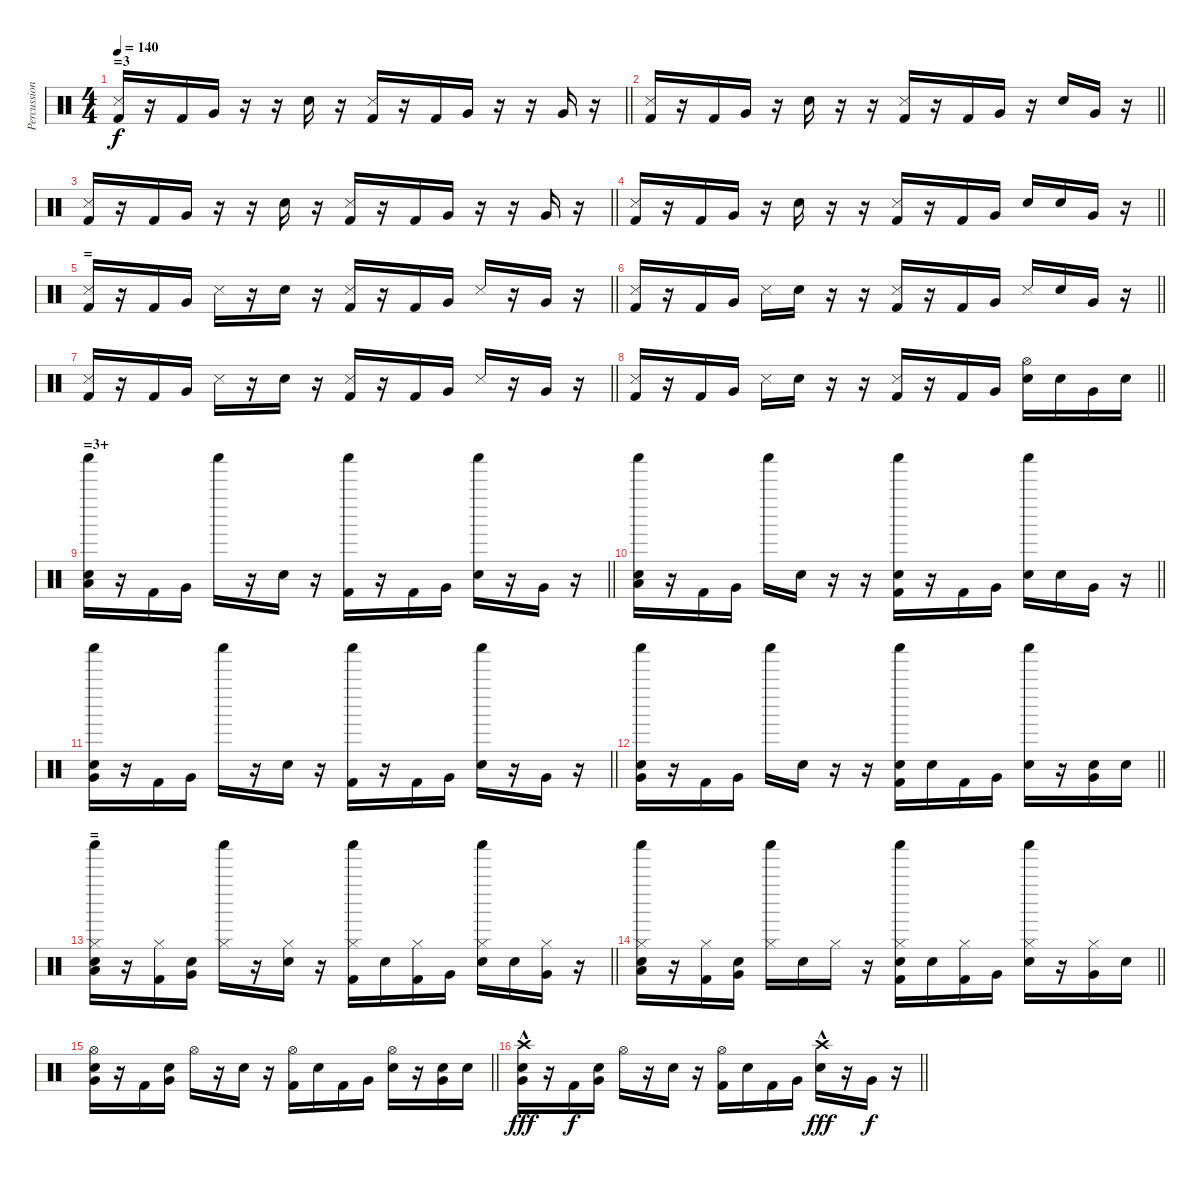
\track ("Percussion" "Percussion") {instrument percussion}
\staff {score}
\articulation defaults
\ts (4 4)
\section ("" "=3")
\tempo 140
\clef neutral
\barLineRight lightlight
\ks c
("Kick (hit) 2" "Snare (side stick) 3").16{dy f} r.16 "Kick (hit) 2".16 "Very Low Tom (hit)".16 r.16 r.16 "Electric Snare (hit)".16 r.16 ("Kick (hit) 2" "Snare (side stick) 3").16 r.16 "Kick (hit) 2".16 "Very Low Tom (hit)".16 r.16 r.16 "Very Low Tom (hit)".16 r.16 |
\barLineRight lightlight
("Kick (hit) 2" "Snare (side stick) 3").16 r.16 "Kick (hit) 2".16 "Very Low Tom (hit)".16 r.16 "Electric Snare (hit)".16 r.16 r.16 ("Kick (hit) 2" "Snare (side stick) 3").16 r.16 "Kick (hit) 2".16 "Very Low Tom (hit)".16 r.16 "Electric Snare (hit)".16 "Very Low Tom (hit)".16 r.16 |
\barLineRight lightlight
("Kick (hit) 2" "Snare (side stick) 3").16 r.16 "Kick (hit) 2".16 "Very Low Tom (hit)".16 r.16 r.16 "Electric Snare (hit)".16 r.16 ("Kick (hit) 2" "Snare (side stick) 3").16 r.16 "Kick (hit) 2".16 "Very Low Tom (hit)".16 r.16 r.16 "Very Low Tom (hit)".16 r.16 |
\barLineRight lightlight
("Kick (hit) 2" "Snare (side stick) 3").16 r.16 "Kick (hit) 2".16 "Very Low Tom (hit)".16 r.16 "Electric Snare (hit)".16 r.16 r.16 ("Kick (hit) 2" "Snare (side stick) 3").16 r.16 "Kick (hit) 2".16 "Very Low Tom (hit)".16 "Electric Snare (hit)".16 "Electric Snare (hit)".16 "Very Low Tom (hit)".16 r.16 |
\section ("" "=")
\barLineRight lightlight
("Kick (hit) 2" "Snare (side stick) 3").16 r.16 "Kick (hit) 2".16 "Very Low Tom (hit)".16 "Snare (side stick) 3".16 r.16 "Electric Snare (hit)".16 r.16 ("Kick (hit) 2" "Snare (side stick) 3").16 r.16 "Kick (hit) 2".16 "Very Low Tom (hit)".16 "Snare (side stick) 3".16 r.16 "Very Low Tom (hit)".16 r.16 |
\barLineRight lightlight
("Kick (hit) 2" "Snare (side stick) 3").16 r.16 "Kick (hit) 2".16 "Very Low Tom (hit)".16 "Snare (side stick) 3".16 "Electric Snare (hit)".16 r.16 r.16 ("Kick (hit) 2" "Snare (side stick) 3").16 r.16 "Kick (hit) 2".16 "Very Low Tom (hit)".16 "Snare (side stick) 3".16 "Electric Snare (hit)".16 "Very Low Tom (hit)".16 r.16 |
\barLineRight lightlight
("Kick (hit) 2" "Snare (side stick) 3").16 r.16 "Kick (hit) 2".16 "Very Low Tom (hit)".16 "Snare (side stick) 3".16 r.16 "Electric Snare (hit)".16 r.16 ("Kick (hit) 2" "Snare (side stick) 3").16 r.16 "Kick (hit) 2".16 "Very Low Tom (hit)".16 "Snare (side stick) 3".16 r.16 "Very Low Tom (hit)".16 r.16 |
\barLineRight lightlight
("Kick (hit) 2" "Snare (side stick) 3").16 r.16 "Kick (hit) 2".16 "Very Low Tom (hit)".16 "Snare (side stick) 3".16 "Electric Snare (hit)".16 r.16 r.16 ("Kick (hit) 2" "Snare (side stick) 3").16 r.16 "Kick (hit) 2".16 "Very Low Tom (hit)".16 ("Electric Snare (hit)" "Hi-Hat (open)").16 "Electric Snare (hit)".16 "Very Low Tom (hit)".16 "Electric Snare (hit)".16 |
\section ("" "=3+")
\barLineRight lightlight
("Low Floor Tom (hit)" "Electric Snare (hit)" "Shaker (hit)").16 r.16 "Kick (hit) 2".16 "Very Low Tom (hit)".16 "Shaker (hit)".16 r.16 "Electric Snare (hit)".16 r.16 ("Kick (hit) 2" "Shaker (hit)").16 r.16 "Kick (hit) 2".16 "Very Low Tom (hit)".16 ("Electric Snare (hit)" "Shaker (hit)").16 r.16 "Very Low Tom (hit)".16 r.16 |
\barLineRight lightlight
("Low Floor Tom (hit)" "Electric Snare (hit)" "Shaker (hit)").16 r.16 "Kick (hit) 2".16 "Very Low Tom (hit)".16 "Shaker (hit)".16 "Electric Snare (hit)".16 r.16 r.16 ("Kick (hit) 2" "Electric Snare (hit)" "Shaker (hit)").16 r.16 "Kick (hit) 2".16 "Very Low Tom (hit)".16 ("Electric Snare (hit)" "Shaker (hit)").16 "Electric Snare (hit)".16 "Very Low Tom (hit)".16 r.16 |
\barLineRight lightlight
("Very Low Tom (hit)" "Electric Snare (hit)" "Shaker (hit)").16 r.16 "Kick (hit) 2".16 "Very Low Tom (hit)".16 "Shaker (hit)".16 r.16 "Electric Snare (hit)".16 r.16 ("Kick (hit) 2" "Shaker (hit)").16 r.16 "Kick (hit) 2".16 "Very Low Tom (hit)".16 ("Electric Snare (hit)" "Shaker (hit)").16 r.16 "Very Low Tom (hit)".16 r.16 |
\barLineRight lightlight
("Very Low Tom (hit)" "Electric Snare (hit)" "Shaker (hit)").16 r.16 "Kick (hit) 2".16 "Very Low Tom (hit)".16 "Shaker (hit)".16 "Electric Snare (hit)".16 r.16 r.16 ("Kick (hit) 2" "Electric Snare (hit)" "Shaker (hit)").16 "Electric Snare (hit)".16 "Kick (hit) 2".16 "Very Low Tom (hit)".16 ("Electric Snare (hit)" "Shaker (hit)").16 r.16 ("Very Low Tom (hit)" "Electric Snare (hit)").16 "Electric Snare (hit)".16 |
\section ("" "=")
\barLineRight lightlight
("Low Floor Tom (hit)" "Electric Snare (hit)" "Hi-Hat (closed)" "Shaker (hit)").16 r.16 ("Kick (hit) 2" "Hi-Hat (closed)").16 ("Very Low Tom (hit)" "Electric Snare (hit)").16 ("Hi-Hat (closed)" "Shaker (hit)").16 r.16 ("Electric Snare (hit)" "Hi-Hat (closed)").16 r.16 ("Kick (hit) 2" "Hi-Hat (closed)" "Shaker (hit)").16 "Electric Snare (hit)".16 ("Kick (hit) 2" "Hi-Hat (closed)").16 "Very Low Tom (hit)".16 ("Electric Snare (hit)" "Hi-Hat (closed)" "Shaker (hit)").16 "Electric Snare (hit)".16 ("Very Low Tom (hit)" "Hi-Hat (closed)").16 r.16 |
\barLineRight lightlight
("Low Floor Tom (hit)" "Electric Snare (hit)" "Hi-Hat (closed)" "Shaker (hit)").16 r.16 ("Kick (hit) 2" "Hi-Hat (closed)").16 ("Very Low Tom (hit)" "Electric Snare (hit)").16 ("Hi-Hat (closed)" "Shaker (hit)").16 "Electric Snare (hit)".16 "Hi-Hat (closed)".16 r.16 ("Kick (hit) 2" "Electric Snare (hit)" "Hi-Hat (closed)" "Shaker (hit)").16 "Electric Snare (hit)".16 ("Kick (hit) 2" "Hi-Hat (closed)").16 "Very Low Tom (hit)".16 ("Electric Snare (hit)" "Hi-Hat (closed)" "Shaker (hit)").16 r.16 ("Very Low Tom (hit)" "Hi-Hat (closed)").16 "Electric Snare (hit)".16 |
\barLineRight lightlight
("Very Low Tom (hit)" "Electric Snare (hit)" "Hi-Hat (open)").16 r.16 "Kick (hit) 2".16 ("Very Low Tom (hit)" "Electric Snare (hit)").16 "Hi-Hat (open)".16 r.16 "Electric Snare (hit)".16 r.16 ("Kick (hit) 2" "Hi-Hat (open)").16 "Electric Snare (hit)".16 "Kick (hit) 2".16 "Very Low Tom (hit)".16 ("Electric Snare (hit)" "Hi-Hat (open)").16 r.16 ("Very Low Tom (hit)" "Electric Snare (hit)").16 "Electric Snare (hit)".16 |
\barLineRight lightlight
("Very Low Tom (hit)" "Electric Snare (hit)" "Crash high (hit)"{hac}).16{dy fff} r.16 "Kick (hit) 2".16{dy f} ("Very Low Tom (hit)" "Electric Snare (hit)").16 "Hi-Hat (open)".16 r.16 "Electric Snare (hit)".16 r.16 ("Kick (hit) 2" "Hi-Hat (open)").16 "Electric Snare (hit)".16 "Kick (hit) 2".16 "Very Low Tom (hit)".16 ("Electric Snare (hit)" "Crash high (hit)"{hac}).16{dy fff} r.16 "Very Low Tom (hit)".16{dy f} r.16
